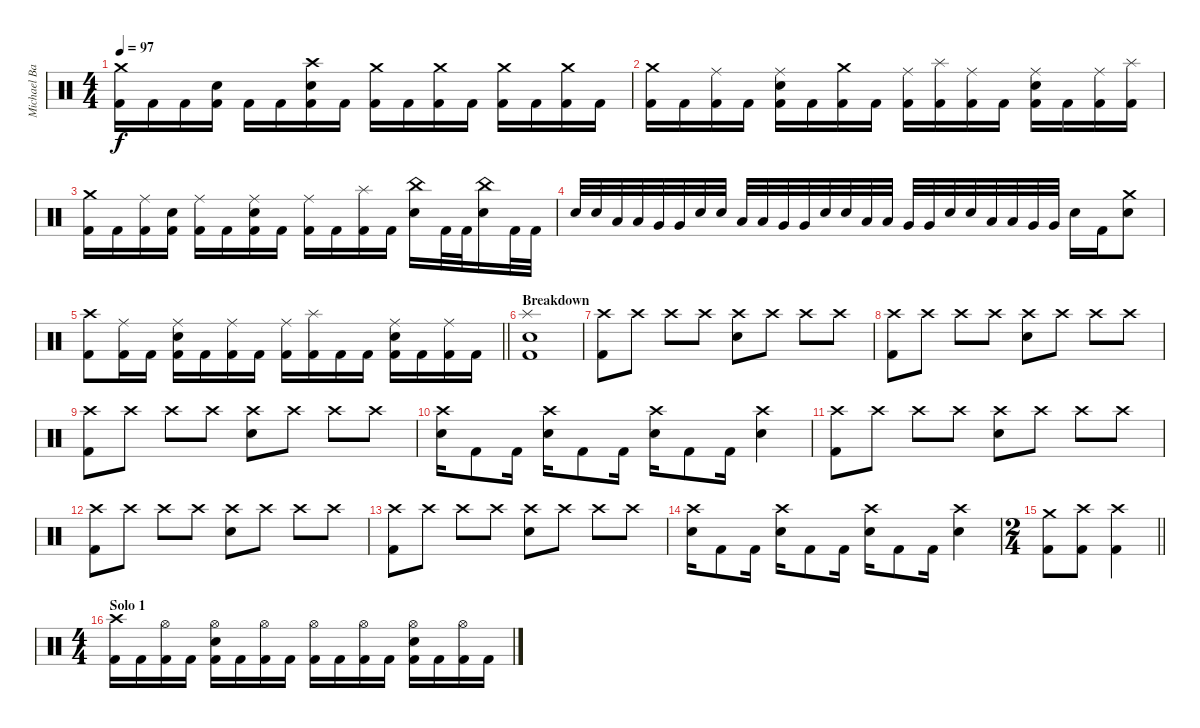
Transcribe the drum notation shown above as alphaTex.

\track ("Michael Bartlett" "Michael Ba") {instrument percussion}
\staff {score}
\articulation defaults
\ts (4 4)
\tempo 97
\clef neutral
\ks c
("Crash medium (hit)" "Kick (hit) 2").16{dy f} "Kick (hit) 2".16 "Kick (hit) 2".16 ("Snare (hit) 2" "Kick (hit) 2").16 "Kick (hit) 2".16 "Kick (hit) 2".16 ("Crash high (hit)" "Snare (hit) 2" "Kick (hit) 2").16 "Kick (hit) 2".16 ("Crash medium (hit)" "Kick (hit) 2").16 "Kick (hit) 2".16 ("Crash medium (hit)" "Kick (hit) 2").16 "Kick (hit) 2".16 ("Crash medium (hit)" "Kick (hit) 2").16 "Kick (hit) 2".16 ("Crash medium (hit)" "Kick (hit) 2").16 "Kick (hit) 2".16 |
("Crash medium (hit)" "Kick (hit) 2").16 "Kick (hit) 2".16 ("Ride (middle)" "Kick (hit) 2").16 "Kick (hit) 2".16 ("Snare (hit) 2" "Ride (middle)" "Kick (hit) 2").16 "Kick (hit) 2".16 ("Crash medium (hit)" "Kick (hit) 2").16 "Kick (hit) 2".16 ("Ride (middle)" "Kick (hit) 2").16 ("Splash (hit)" "Kick (hit) 2").16 ("Ride (middle)" "Kick (hit) 2").16 "Kick (hit) 2".16 ("Snare (hit) 2" "Ride (middle)" "Kick (hit) 2").16 "Kick (hit) 2".16 ("Ride (middle)" "Kick (hit) 2").16 ("Splash (hit)" "Kick (hit) 2").16 |
("Crash medium (hit)" "Kick (hit) 2").16 "Kick (hit) 2".16 ("Ride (middle)" "Kick (hit) 2").16 ("Snare (hit) 2" "Kick (hit) 2").16 ("Ride (middle)" "Kick (hit) 2").16 "Kick (hit) 2".16 ("Snare (hit) 2" "Ride (middle)" "Kick (hit) 2").16 "Kick (hit) 2".16 ("Ride (middle)" "Kick (hit) 2").16 "Kick (hit) 2".16 ("Splash (hit)" "Kick (hit) 2").16 "Kick (hit) 2".16 ("China (hit)" "Snare (hit) 2").16 "Kick (hit) 2".32 "Kick (hit) 2".32 ("China (hit)" "Snare (hit) 2").16 "Kick (hit) 2".32 "Kick (hit) 2".32 |
"Snare (hit) 2".32 "Snare (hit) 2".32 "Low Tom (hit)".32 "Low Tom (hit)".32 "Very Low Tom (hit)".32 "Very Low Tom (hit)".32 "Snare (hit) 2".32 "Snare (hit) 2".32 "Low Tom (hit)".32 "Low Tom (hit)".32 "Very Low Tom (hit)".32 "Very Low Tom (hit)".32 "Snare (hit) 2".32 "Snare (hit) 2".32 "Low Tom (hit)".32 "Low Tom (hit)".32 "Very Low Tom (hit)".32 "Very Low Tom (hit)".32 "Snare (hit) 2".32 "Snare (hit) 2".32 "Low Tom (hit)".32 "Low Tom (hit)".32 "Very Low Tom (hit)".32 "Very Low Tom (hit)".32 "Snare (hit) 2".16 "Kick (hit) 2".16 ("Crash medium (hit)" "Snare (hit) 2").8 |
\barLineRight lightlight
("Crash high (hit)" "Kick (hit) 2").8 ("Ride (middle)" "Kick (hit) 2").16 "Kick (hit) 2".16 ("Snare (hit) 2" "Ride (middle)" "Kick (hit) 2").16 "Kick (hit) 2".16 ("Ride (middle)" "Kick (hit) 2").16 "Kick (hit) 2".16 ("Ride (middle)" "Kick (hit) 2").16 ("Splash (hit)" "Kick (hit) 2").16 "Kick (hit) 2".16 "Kick (hit) 2".16 ("Snare (hit) 2" "Ride (middle)" "Kick (hit) 2").16 "Kick (hit) 2".16 ("Ride (middle)" "Kick (hit) 2").16 "Kick (hit) 2".16 |
\section ("" "Breakdown")
("Snare (hit) 2" "Splash (hit)" "Kick (hit) 2").1 |
("Crash high (hit)" "Kick (hit) 2").8 "Crash high (hit)".8 "Crash high (hit)".8 "Crash high (hit)".8 ("Crash high (hit)" "Snare (hit) 2").8 "Crash high (hit)".8 "Crash high (hit)".8 "Crash high (hit)".8 |
("Crash high (hit)" "Kick (hit) 2").8 "Crash high (hit)".8 "Crash high (hit)".8 "Crash high (hit)".8 ("Crash high (hit)" "Snare (hit) 2").8 "Crash high (hit)".8 "Crash high (hit)".8 "Crash high (hit)".8 |
("Crash high (hit)" "Kick (hit) 2").8 "Crash high (hit)".8 "Crash high (hit)".8 "Crash high (hit)".8 ("Crash high (hit)" "Snare (hit) 2").8 "Crash high (hit)".8 "Crash high (hit)".8 "Crash high (hit)".8 |
("Crash high (hit)" "Snare (hit) 2").16 "Kick (hit) 2".8 "Kick (hit) 2".16 ("Crash high (hit)" "Snare (hit) 2").16 "Kick (hit) 2".8 "Kick (hit) 2".16 ("Crash high (hit)" "Snare (hit) 2").16 "Kick (hit) 2".8 "Kick (hit) 2".16 ("Crash high (hit)" "Snare (hit) 2").4 |
("Crash high (hit)" "Kick (hit) 2").8 "Crash high (hit)".8 "Crash high (hit)".8 "Crash high (hit)".8 ("Crash high (hit)" "Snare (hit) 2").8 "Crash high (hit)".8 "Crash high (hit)".8 "Crash high (hit)".8 |
("Crash high (hit)" "Kick (hit) 2").8 "Crash high (hit)".8 "Crash high (hit)".8 "Crash high (hit)".8 ("Crash high (hit)" "Snare (hit) 2").8 "Crash high (hit)".8 "Crash high (hit)".8 "Crash high (hit)".8 |
("Crash high (hit)" "Kick (hit) 2").8 "Crash high (hit)".8 "Crash high (hit)".8 "Crash high (hit)".8 ("Crash high (hit)" "Snare (hit) 2").8 "Crash high (hit)".8 "Crash high (hit)".8 "Crash high (hit)".8 |
("Crash high (hit)" "Snare (hit) 2").16 "Kick (hit) 2".8 "Kick (hit) 2".16 ("Crash high (hit)" "Snare (hit) 2").16 "Kick (hit) 2".8 "Kick (hit) 2".16 ("Crash high (hit)" "Snare (hit) 2").16 "Kick (hit) 2".8 "Kick (hit) 2".16 ("Crash high (hit)" "Snare (hit) 2").4 |
\ts (2 4)
\barLineRight lightlight
("Crash medium (hit)" "Kick (hit) 2").8 ("Crash high (hit)" "Kick (hit) 2").8 ("Crash high (hit)" "Kick (hit) 2").4 |
\ts (4 4)
\section ("" "Solo 1")
("Crash high (hit)" "Kick (hit) 2").16 "Kick (hit) 2".16 ("Hi-Hat (open)" "Kick (hit) 2").16 "Kick (hit) 2".16 ("Snare (hit) 2" "Hi-Hat (open)" "Kick (hit) 2").16 "Kick (hit) 2".16 ("Hi-Hat (open)" "Kick (hit) 2").16 "Kick (hit) 2".16 ("Hi-Hat (open)" "Kick (hit) 2").16 "Kick (hit) 2".16 ("Hi-Hat (open)" "Kick (hit) 2").16 "Kick (hit) 2".16 ("Snare (hit) 2" "Hi-Hat (open)" "Kick (hit) 2").16 "Kick (hit) 2".16 ("Hi-Hat (open)" "Kick (hit) 2").16 "Kick (hit) 2".16
